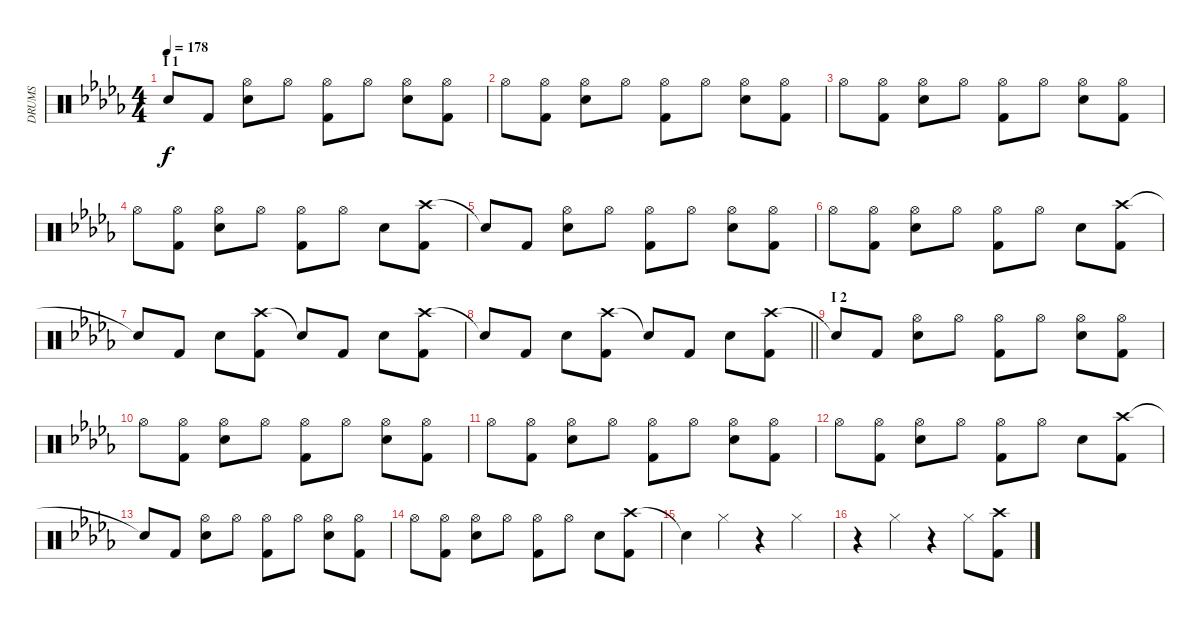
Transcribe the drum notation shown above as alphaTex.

\track ("DRUMS" "DRUMS") {instrument percussion}
\staff {score}
\articulation defaults
\ts (4 4)
\section ("" "I 1")
\tempo 178
\clef neutral
\ks db "Snare (hit)"{t}.8{dy f} "Kick (hit) 2".8
("Hi-Hat (open)" "Snare (hit) 2").8 "Hi-Hat (open)".8 ("Hi-Hat (open)" "Kick (hit) 2").8 "Hi-Hat (open)".8 ("Hi-Hat (open)" "Snare (hit) 2").8 ("Hi-Hat (open)" "Kick (hit) 2").8 |
"Hi-Hat (open)".8 ("Hi-Hat (open)" "Kick (hit) 2").8 ("Hi-Hat (open)" "Snare (hit) 2").8 "Hi-Hat (open)".8 ("Hi-Hat (open)" "Kick (hit) 2").8 "Hi-Hat (open)".8 ("Hi-Hat (open)" "Snare (hit) 2").8 ("Hi-Hat (open)" "Kick (hit) 2").8 |
"Hi-Hat (open)".8 ("Hi-Hat (open)" "Kick (hit) 2").8 ("Hi-Hat (open)" "Snare (hit) 2").8 "Hi-Hat (open)".8 ("Hi-Hat (open)" "Kick (hit) 2").8 "Hi-Hat (open)".8 ("Hi-Hat (open)" "Snare (hit) 2").8 ("Hi-Hat (open)" "Kick (hit) 2").8 |
"Hi-Hat (open)".8 ("Hi-Hat (open)" "Kick (hit) 2").8 ("Hi-Hat (open)" "Snare (hit) 2").8 "Hi-Hat (open)".8 ("Hi-Hat (open)" "Kick (hit) 2").8 "Hi-Hat (open)".8 "Snare (hit) 2".8 ("Crash high (hit)" "Kick (hit) 2").8 |
"Snare (hit)"{t}.8 "Kick (hit) 2".8 ("Hi-Hat (open)" "Snare (hit) 2").8 "Hi-Hat (open)".8 ("Hi-Hat (open)" "Kick (hit) 2").8 "Hi-Hat (open)".8 ("Hi-Hat (open)" "Snare (hit) 2").8 ("Hi-Hat (open)" "Kick (hit) 2").8 |
"Hi-Hat (open)".8 ("Hi-Hat (open)" "Kick (hit) 2").8 ("Hi-Hat (open)" "Snare (hit) 2").8 "Hi-Hat (open)".8 ("Hi-Hat (open)" "Kick (hit) 2").8 "Hi-Hat (open)".8 "Snare (hit) 2".8 ("Crash high (hit)" "Kick (hit) 2").8 |
"Snare (hit)"{t}.8 "Kick (hit) 2".8 "Snare (hit) 2".8 ("Crash high (hit)" "Kick (hit) 2").8 "Snare (hit)"{t}.8 "Kick (hit) 2".8 "Snare (hit) 2".8 ("Crash high (hit)" "Kick (hit) 2").8 |
\barLineRight lightlight "Snare (hit)"{t}.8 "Kick (hit) 2".8 "Snare (hit) 2".8
("Crash high (hit)" "Kick (hit) 2").8 "Snare (hit)"{t}.8 "Kick (hit) 2".8 "Snare (hit) 2".8 ("Crash high (hit)" "Kick (hit) 2").8 |
\section ("" "I 2")
"Snare (hit)"{t}.8 "Kick (hit) 2".8 ("Hi-Hat (open)" "Snare (hit) 2").8 "Hi-Hat (open)".8 ("Hi-Hat (open)" "Kick (hit) 2").8 "Hi-Hat (open)".8 ("Hi-Hat (open)" "Snare (hit) 2").8 ("Hi-Hat (open)" "Kick (hit) 2").8 |
"Hi-Hat (open)".8 ("Hi-Hat (open)" "Kick (hit) 2").8 ("Hi-Hat (open)" "Snare (hit) 2").8 "Hi-Hat (open)".8 ("Hi-Hat (open)" "Kick (hit) 2").8 "Hi-Hat (open)".8 ("Hi-Hat (open)" "Snare (hit) 2").8 ("Hi-Hat (open)" "Kick (hit) 2").8 |
"Hi-Hat (open)".8 ("Hi-Hat (open)" "Kick (hit) 2").8 ("Hi-Hat (open)" "Snare (hit) 2").8 "Hi-Hat (open)".8 ("Hi-Hat (open)" "Kick (hit) 2").8 "Hi-Hat (open)".8 ("Hi-Hat (open)" "Snare (hit) 2").8 ("Hi-Hat (open)" "Kick (hit) 2").8 |
"Hi-Hat (open)".8 ("Hi-Hat (open)" "Kick (hit) 2").8 ("Hi-Hat (open)" "Snare (hit) 2").8 "Hi-Hat (open)".8 ("Hi-Hat (open)" "Kick (hit) 2").8 "Hi-Hat (open)".8 "Snare (hit) 2".8 ("Crash high (hit)" "Kick (hit) 2").8 |
"Snare (hit)"{t}.8 "Kick (hit) 2".8 ("Hi-Hat (open)" "Snare (hit) 2").8 "Hi-Hat (open)".8 ("Hi-Hat (open)" "Kick (hit) 2").8 "Hi-Hat (open)".8 ("Hi-Hat (open)" "Snare (hit) 2").8 ("Hi-Hat (open)" "Kick (hit) 2").8 |
"Hi-Hat (open)".8 ("Hi-Hat (open)" "Kick (hit) 2").8 ("Hi-Hat (open)" "Snare (hit) 2").8 "Hi-Hat (open)".8 ("Hi-Hat (open)" "Kick (hit) 2").8 "Hi-Hat (open)".8 "Snare (hit) 2".8 ("Crash high (hit)" "Kick (hit) 2").8 |
"Snare (hit)"{t}.4 "Hi-Hat (closed)".4 r.4 "Hi-Hat (closed)".4 |
r.4 "Hi-Hat (closed)".4 r.4 "Hi-Hat (closed)".8 ("Crash high (hit)" "Kick (hit) 2").8
